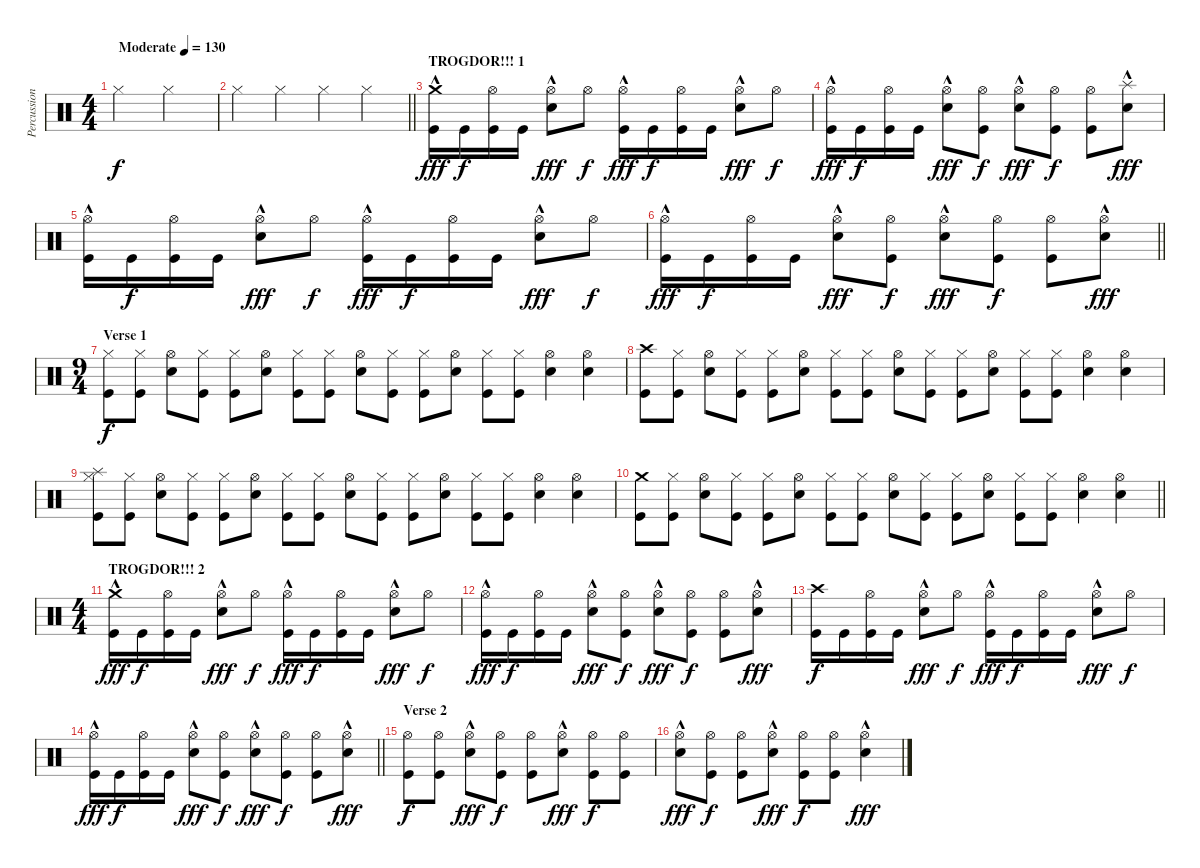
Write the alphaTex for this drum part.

\track ("Percussion" "Percussion") {instrument percussion}
\staff {score}
\articulation defaults
\ts (4 4)
\tempo (130 "Moderate")
\clef neutral
\ks c "Hi-Hat (closed)".2{dy f} "Hi-Hat (closed)".2
|
\barLineRight lightlight "Hi-Hat (closed)".4 "Hi-Hat (closed)".4 "Hi-Hat (closed)".4 "Hi-Hat (closed)".4
|
\section ("" "TROGDOR!!! 1")
("Kick (hit)" "Crash medium (hit)"{hac}).16{dy fff} "Kick (hit)".16{dy f} ("Hi-Hat (open)" "Kick (hit)").16 "Kick (hit)".16 ("Snare (hit) 2" "Hi-Hat (open)"{hac}).8{dy fff} "Hi-Hat (open)".8{dy f} ("Hi-Hat (open)"{hac} "Kick (hit)").16{dy fff} "Kick (hit)".16{dy f} ("Hi-Hat (open)" "Kick (hit)").16 "Kick (hit)".16 ("Snare (hit) 2" "Hi-Hat (open)"{hac}).8{dy fff} "Hi-Hat (open)".8{dy f} |
("Hi-Hat (open)"{hac} "Kick (hit)").16{dy fff} "Kick (hit)".16{dy f} ("Hi-Hat (open)" "Kick (hit)").16 "Kick (hit)".16 ("Snare (hit) 2" "Hi-Hat (open)"{hac}).8{dy fff} ("Hi-Hat (open)" "Kick (hit)").8{dy f} ("Snare (hit) 2" "Hi-Hat (open)"{hac}).8{dy fff} ("Hi-Hat (open)" "Kick (hit)").8{dy f} ("Hi-Hat (open)" "Kick (hit)").8 ("Snare (hit) 2" "Splash (hit)"{hac}).8{dy fff} |
("Hi-Hat (open)"{hac} "Kick (hit)").16 "Kick (hit)".16{dy f} ("Hi-Hat (open)" "Kick (hit)").16 "Kick (hit)".16 ("Snare (hit) 2" "Hi-Hat (open)"{hac}).8{dy fff} "Hi-Hat (open)".8{dy f} ("Hi-Hat (open)"{hac} "Kick (hit)").16{dy fff} "Kick (hit)".16{dy f} ("Hi-Hat (open)" "Kick (hit)").16 "Kick (hit)".16 ("Snare (hit) 2" "Hi-Hat (open)"{hac}).8{dy fff} "Hi-Hat (open)".8{dy f} |
\barLineRight lightlight
("Hi-Hat (open)"{hac} "Kick (hit)").16{dy fff} "Kick (hit)".16{dy f} ("Hi-Hat (open)" "Kick (hit)").16 "Kick (hit)".16 ("Snare (hit) 2" "Hi-Hat (open)"{hac}).8{dy fff} ("Hi-Hat (open)" "Kick (hit)").8{dy f} ("Snare (hit) 2" "Hi-Hat (open)"{hac}).8{dy fff} ("Hi-Hat (open)" "Kick (hit)").8{dy f} ("Hi-Hat (open)" "Kick (hit)").8 ("Snare (hit) 2" "Hi-Hat (open)"{hac}).8{dy fff} |
\ts (9 4)
\section ("" "Verse 1")
("Hi-Hat (closed)" "Kick (hit)").8{dy f} ("Hi-Hat (closed)" "Kick (hit)").8 ("Snare (hit) 2" "Hi-Hat (open)").8 ("Hi-Hat (closed)" "Kick (hit)").8 ("Hi-Hat (closed)" "Kick (hit)").8 ("Snare (hit) 2" "Hi-Hat (open)").8 ("Hi-Hat (closed)" "Kick (hit)").8 ("Hi-Hat (closed)" "Kick (hit)").8 ("Snare (hit) 2" "Hi-Hat (open)").8 ("Hi-Hat (closed)" "Kick (hit)").8 ("Hi-Hat (closed)" "Kick (hit)").8 ("Snare (hit) 2" "Hi-Hat (open)").8 ("Hi-Hat (closed)" "Kick (hit)").8 ("Hi-Hat (closed)" "Kick (hit)").8 ("Snare (hit) 2" "Hi-Hat (open)").4 ("Snare (hit) 2" "Hi-Hat (open)").4 |
("Kick (hit)" "Crash high (hit)").8 ("Hi-Hat (closed)" "Kick (hit)").8 ("Snare (hit) 2" "Hi-Hat (open)").8 ("Hi-Hat (closed)" "Kick (hit)").8 ("Hi-Hat (closed)" "Kick (hit)").8 ("Snare (hit) 2" "Hi-Hat (open)").8 ("Hi-Hat (closed)" "Kick (hit)").8 ("Hi-Hat (closed)" "Kick (hit)").8 ("Snare (hit) 2" "Hi-Hat (open)").8 ("Hi-Hat (closed)" "Kick (hit)").8 ("Hi-Hat (closed)" "Kick (hit)").8 ("Snare (hit) 2" "Hi-Hat (open)").8 ("Hi-Hat (closed)" "Kick (hit)").8 ("Hi-Hat (closed)" "Kick (hit)").8 ("Snare (hit) 2" "Hi-Hat (open)").4 ("Snare (hit) 2" "Hi-Hat (open)").4 |
("Hi-Hat (closed)" "Kick (hit)" "Splash (hit)").8 ("Hi-Hat (closed)" "Kick (hit)").8 ("Snare (hit) 2" "Hi-Hat (open)").8 ("Hi-Hat (closed)" "Kick (hit)").8 ("Hi-Hat (closed)" "Kick (hit)").8 ("Snare (hit) 2" "Hi-Hat (open)").8 ("Hi-Hat (closed)" "Kick (hit)").8 ("Hi-Hat (closed)" "Kick (hit)").8 ("Snare (hit) 2" "Hi-Hat (open)").8 ("Hi-Hat (closed)" "Kick (hit)").8 ("Hi-Hat (closed)" "Kick (hit)").8 ("Snare (hit) 2" "Hi-Hat (open)").8 ("Hi-Hat (closed)" "Kick (hit)").8 ("Hi-Hat (closed)" "Kick (hit)").8 ("Snare (hit) 2" "Hi-Hat (open)").4 ("Snare (hit) 2" "Hi-Hat (open)").4 |
\barLineRight lightlight
("Kick (hit)" "Crash medium (hit)").8 ("Hi-Hat (closed)" "Kick (hit)").8 ("Snare (hit) 2" "Hi-Hat (open)").8 ("Hi-Hat (closed)" "Kick (hit)").8 ("Hi-Hat (closed)" "Kick (hit)").8 ("Snare (hit) 2" "Hi-Hat (open)").8 ("Hi-Hat (closed)" "Kick (hit)").8 ("Hi-Hat (closed)" "Kick (hit)").8 ("Snare (hit) 2" "Hi-Hat (open)").8 ("Hi-Hat (closed)" "Kick (hit)").8 ("Hi-Hat (closed)" "Kick (hit)").8 ("Snare (hit) 2" "Hi-Hat (open)").8 ("Hi-Hat (closed)" "Kick (hit)").8 ("Hi-Hat (closed)" "Kick (hit)").8 ("Snare (hit) 2" "Hi-Hat (open)").4 ("Snare (hit) 2" "Hi-Hat (open)").4 |
\ts (4 4)
\section ("" "TROGDOR!!! 2")
("Kick (hit)" "Crash medium (hit)"{hac}).16{dy fff} "Kick (hit)".16{dy f} ("Hi-Hat (open)" "Kick (hit)").16 "Kick (hit)".16 ("Snare (hit) 2" "Hi-Hat (open)"{hac}).8{dy fff} "Hi-Hat (open)".8{dy f} ("Hi-Hat (open)"{hac} "Kick (hit)").16{dy fff} "Kick (hit)".16{dy f} ("Hi-Hat (open)" "Kick (hit)").16 "Kick (hit)".16 ("Snare (hit) 2" "Hi-Hat (open)"{hac}).8{dy fff} "Hi-Hat (open)".8{dy f} |
("Hi-Hat (open)"{hac} "Kick (hit)").16{dy fff} "Kick (hit)".16{dy f} ("Hi-Hat (open)" "Kick (hit)").16 "Kick (hit)".16 ("Snare (hit) 2" "Hi-Hat (open)"{hac}).8{dy fff} ("Hi-Hat (open)" "Kick (hit)").8{dy f} ("Snare (hit) 2" "Hi-Hat (open)"{hac}).8{dy fff} ("Hi-Hat (open)" "Kick (hit)").8{dy f} ("Hi-Hat (open)" "Kick (hit)").8 ("Snare (hit) 2" "Hi-Hat (open)"{hac}).8{dy fff} |
("Kick (hit)" "Crash high (hit)").16{dy f} "Kick (hit)".16 ("Hi-Hat (open)" "Kick (hit)").16 "Kick (hit)".16 ("Snare (hit) 2" "Hi-Hat (open)"{hac}).8{dy fff} "Hi-Hat (open)".8{dy f} ("Hi-Hat (open)"{hac} "Kick (hit)").16{dy fff} "Kick (hit)".16{dy f} ("Hi-Hat (open)" "Kick (hit)").16 "Kick (hit)".16 ("Snare (hit) 2" "Hi-Hat (open)"{hac}).8{dy fff} "Hi-Hat (open)".8{dy f} |
\barLineRight lightlight
("Hi-Hat (open)"{hac} "Kick (hit)").16{dy fff} "Kick (hit)".16{dy f} ("Hi-Hat (open)" "Kick (hit)").16 "Kick (hit)".16 ("Snare (hit) 2" "Hi-Hat (open)"{hac}).8{dy fff} ("Hi-Hat (open)" "Kick (hit)").8{dy f} ("Snare (hit) 2" "Hi-Hat (open)"{hac}).8{dy fff} ("Hi-Hat (open)" "Kick (hit)").8{dy f} ("Hi-Hat (open)" "Kick (hit)").8 ("Snare (hit) 2" "Hi-Hat (open)"{hac}).8{dy fff} |
\section ("" "Verse 2")
("Hi-Hat (open)" "Kick (hit)").8{dy f} ("Hi-Hat (open)" "Kick (hit)").8 ("Snare (hit) 2" "Hi-Hat (open)"{hac}).8{dy fff} ("Hi-Hat (open)" "Kick (hit)").8{dy f} ("Hi-Hat (open)" "Kick (hit)").8 ("Snare (hit) 2" "Hi-Hat (open)"{hac}).8{dy fff} ("Hi-Hat (open)" "Kick (hit)").8{dy f} ("Hi-Hat (open)" "Kick (hit)").8 |
("Snare (hit) 2" "Hi-Hat (open)"{hac}).8{dy fff} ("Hi-Hat (open)" "Kick (hit)").8{dy f} ("Hi-Hat (open)" "Kick (hit)").8 ("Snare (hit) 2" "Hi-Hat (open)"{hac}).8{dy fff} ("Hi-Hat (open)" "Kick (hit)").8{dy f} ("Hi-Hat (open)" "Kick (hit)").8 ("Snare (hit) 2" "Hi-Hat (open)"{hac}).4{dy fff}
